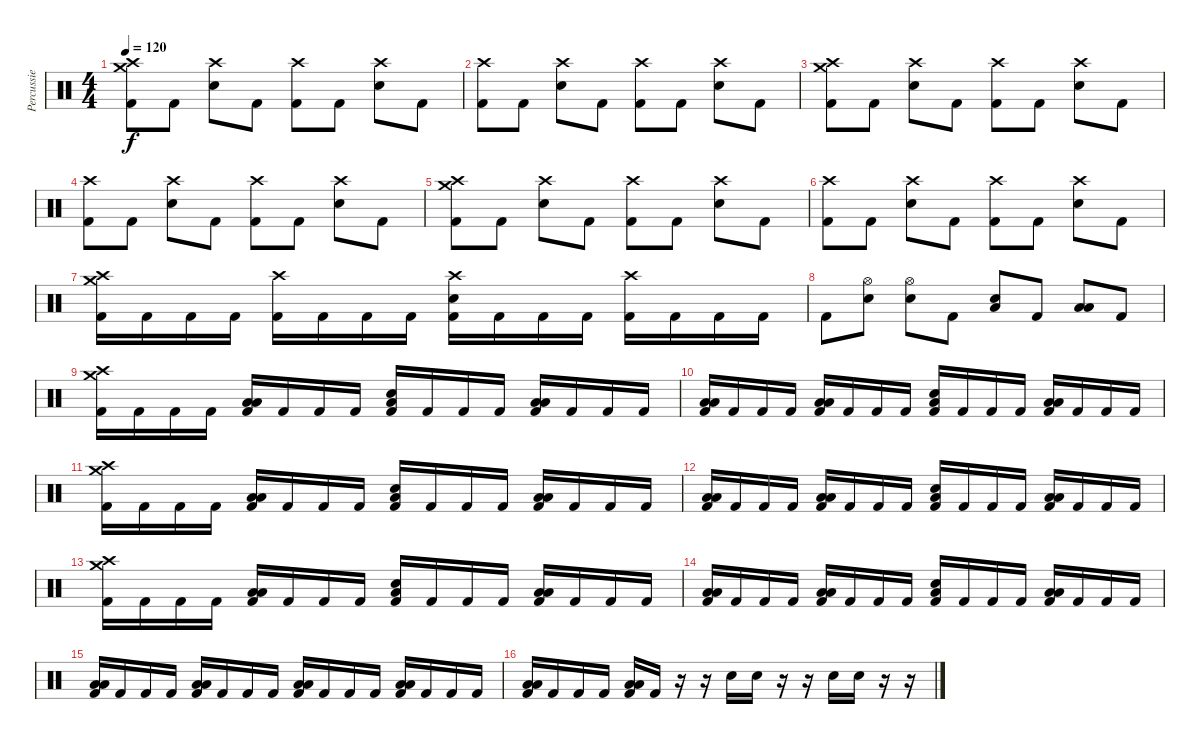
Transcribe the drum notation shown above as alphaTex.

\track ("Percussie" "Percussie") {instrument percussion}
\staff {score}
\articulation defaults
\ts (4 4)
\tempo 120
\clef neutral
\ks c
("Crash medium (hit)" "Crash high (hit)" "Kick (hit) 2").8{dy f} "Kick (hit) 2".8 ("Crash high (hit)" "Electric Snare (hit)").8 "Kick (hit) 2".8 ("Crash high (hit)" "Kick (hit) 2").8 "Kick (hit) 2".8 ("Crash high (hit)" "Electric Snare (hit)").8 "Kick (hit) 2".8 |
("Crash high (hit)" "Kick (hit) 2").8 "Kick (hit) 2".8 ("Crash high (hit)" "Electric Snare (hit)").8 "Kick (hit) 2".8 ("Crash high (hit)" "Kick (hit) 2").8 "Kick (hit) 2".8 ("Crash high (hit)" "Electric Snare (hit)").8 "Kick (hit) 2".8 |
("Crash medium (hit)" "Crash high (hit)" "Kick (hit) 2").8 "Kick (hit) 2".8 ("Crash high (hit)" "Electric Snare (hit)").8 "Kick (hit) 2".8 ("Crash high (hit)" "Kick (hit) 2").8 "Kick (hit) 2".8 ("Crash high (hit)" "Electric Snare (hit)").8 "Kick (hit) 2".8 |
("Crash high (hit)" "Kick (hit) 2").8 "Kick (hit) 2".8 ("Crash high (hit)" "Electric Snare (hit)").8 "Kick (hit) 2".8 ("Crash high (hit)" "Kick (hit) 2").8 "Kick (hit) 2".8 ("Crash high (hit)" "Electric Snare (hit)").8 "Kick (hit) 2".8 |
("Crash medium (hit)" "Crash high (hit)" "Kick (hit) 2").8 "Kick (hit) 2".8 ("Crash high (hit)" "Electric Snare (hit)").8 "Kick (hit) 2".8 ("Crash high (hit)" "Kick (hit) 2").8 "Kick (hit) 2".8 ("Crash high (hit)" "Electric Snare (hit)").8 "Kick (hit) 2".8 |
("Crash high (hit)" "Kick (hit) 2").8 "Kick (hit) 2".8 ("Crash high (hit)" "Electric Snare (hit)").8 "Kick (hit) 2".8 ("Crash high (hit)" "Kick (hit) 2").8 "Kick (hit) 2".8 ("Crash high (hit)" "Electric Snare (hit)").8 "Kick (hit) 2".8 |
("Crash medium (hit)" "Crash high (hit)" "Kick (hit) 2").16 "Kick (hit) 2".16 "Kick (hit) 2".16 "Kick (hit) 2".16 ("Crash high (hit)" "Kick (hit) 2").16 "Kick (hit) 2".16 "Kick (hit) 2".16 "Kick (hit) 2".16 ("Crash high (hit)" "Electric Snare (hit)" "Kick (hit) 2").16 "Kick (hit) 2".16 "Kick (hit) 2".16 "Kick (hit) 2".16 ("Crash high (hit)" "Kick (hit) 2").16 "Kick (hit) 2".16 "Kick (hit) 2".16 "Kick (hit) 2".16 |
"Kick (hit) 2".8 ("Hi-Hat (open)" "Electric Snare (hit)").8 ("Hi-Hat (open)" "Electric Snare (hit)").8 "Kick (hit) 2".8 ("Low Floor Tom (hit)" "Electric Snare (hit)").8 "Kick (hit) 2".8 ("Low Tom (hit)" "Low Floor Tom (hit)").8 "Kick (hit) 2".8 |
("Crash medium (hit)" "Crash high (hit)" "Kick (hit) 2").16 "Kick (hit) 2".16 "Kick (hit) 2".16 "Kick (hit) 2".16 ("Low Tom (hit)" "Low Floor Tom (hit)" "Kick (hit) 2").16 "Kick (hit) 2".16 "Kick (hit) 2".16 "Kick (hit) 2".16 ("Low Floor Tom (hit)" "Electric Snare (hit)" "Kick (hit) 2").16 "Kick (hit) 2".16 "Kick (hit) 2".16 "Kick (hit) 2".16 ("Low Tom (hit)" "Low Floor Tom (hit)" "Kick (hit) 2").16 "Kick (hit) 2".16 "Kick (hit) 2".16 "Kick (hit) 2".16 |
("Low Tom (hit)" "Low Floor Tom (hit)" "Kick (hit) 2").16 "Kick (hit) 2".16 "Kick (hit) 2".16 "Kick (hit) 2".16 ("Low Tom (hit)" "Low Floor Tom (hit)" "Kick (hit) 2").16 "Kick (hit) 2".16 "Kick (hit) 2".16 "Kick (hit) 2".16 ("Low Floor Tom (hit)" "Electric Snare (hit)" "Kick (hit) 2").16 "Kick (hit) 2".16 "Kick (hit) 2".16 "Kick (hit) 2".16 ("Low Tom (hit)" "Low Floor Tom (hit)" "Kick (hit) 2").16 "Kick (hit) 2".16 "Kick (hit) 2".16 "Kick (hit) 2".16 |
("Crash medium (hit)" "Crash high (hit)" "Kick (hit) 2").16 "Kick (hit) 2".16 "Kick (hit) 2".16 "Kick (hit) 2".16 ("Low Tom (hit)" "Low Floor Tom (hit)" "Kick (hit) 2").16 "Kick (hit) 2".16 "Kick (hit) 2".16 "Kick (hit) 2".16 ("Low Floor Tom (hit)" "Electric Snare (hit)" "Kick (hit) 2").16 "Kick (hit) 2".16 "Kick (hit) 2".16 "Kick (hit) 2".16 ("Low Tom (hit)" "Low Floor Tom (hit)" "Kick (hit) 2").16 "Kick (hit) 2".16 "Kick (hit) 2".16 "Kick (hit) 2".16 |
("Low Tom (hit)" "Low Floor Tom (hit)" "Kick (hit) 2").16 "Kick (hit) 2".16 "Kick (hit) 2".16 "Kick (hit) 2".16 ("Low Tom (hit)" "Low Floor Tom (hit)" "Kick (hit) 2").16 "Kick (hit) 2".16 "Kick (hit) 2".16 "Kick (hit) 2".16 ("Low Floor Tom (hit)" "Electric Snare (hit)" "Kick (hit) 2").16 "Kick (hit) 2".16 "Kick (hit) 2".16 "Kick (hit) 2".16 ("Low Tom (hit)" "Low Floor Tom (hit)" "Kick (hit) 2").16 "Kick (hit) 2".16 "Kick (hit) 2".16 "Kick (hit) 2".16 |
("Crash medium (hit)" "Crash high (hit)" "Kick (hit) 2").16 "Kick (hit) 2".16 "Kick (hit) 2".16 "Kick (hit) 2".16 ("Low Tom (hit)" "Low Floor Tom (hit)" "Kick (hit) 2").16 "Kick (hit) 2".16 "Kick (hit) 2".16 "Kick (hit) 2".16 ("Low Floor Tom (hit)" "Electric Snare (hit)" "Kick (hit) 2").16 "Kick (hit) 2".16 "Kick (hit) 2".16 "Kick (hit) 2".16 ("Low Tom (hit)" "Low Floor Tom (hit)" "Kick (hit) 2").16 "Kick (hit) 2".16 "Kick (hit) 2".16 "Kick (hit) 2".16 |
("Low Tom (hit)" "Low Floor Tom (hit)" "Kick (hit) 2").16 "Kick (hit) 2".16 "Kick (hit) 2".16 "Kick (hit) 2".16 ("Low Tom (hit)" "Low Floor Tom (hit)" "Kick (hit) 2").16 "Kick (hit) 2".16 "Kick (hit) 2".16 "Kick (hit) 2".16 ("Low Floor Tom (hit)" "Electric Snare (hit)" "Kick (hit) 2").16 "Kick (hit) 2".16 "Kick (hit) 2".16 "Kick (hit) 2".16 ("Low Tom (hit)" "Low Floor Tom (hit)" "Kick (hit) 2").16 "Kick (hit) 2".16 "Kick (hit) 2".16 "Kick (hit) 2".16 |
("Low Tom (hit)" "Low Floor Tom (hit)" "Kick (hit) 2").16 "Kick (hit) 2".16 "Kick (hit) 2".16 "Kick (hit) 2".16 ("Low Tom (hit)" "Low Floor Tom (hit)" "Kick (hit) 2").16 "Kick (hit) 2".16 "Kick (hit) 2".16 "Kick (hit) 2".16 ("Low Floor Tom (hit)" "Low Floor Tom (hit)" "Kick (hit) 2").16 "Kick (hit) 2".16 "Kick (hit) 2".16 "Kick (hit) 2".16 ("Low Tom (hit)" "Low Floor Tom (hit)" "Kick (hit) 2").16 "Kick (hit) 2".16 "Kick (hit) 2".16 "Kick (hit) 2".16 |
("Low Tom (hit)" "Low Floor Tom (hit)" "Kick (hit) 2").16 "Kick (hit) 2".16 "Kick (hit) 2".16 "Kick (hit) 2".16 ("Low Tom (hit)" "Low Floor Tom (hit)" "Kick (hit) 2").16 "Kick (hit) 2".16 r.16 r.16 "Electric Snare (hit)".16 "Electric Snare (hit)".16 r.16 r.16 "Electric Snare (hit)".16 "Electric Snare (hit)".16 r.16 r.16
